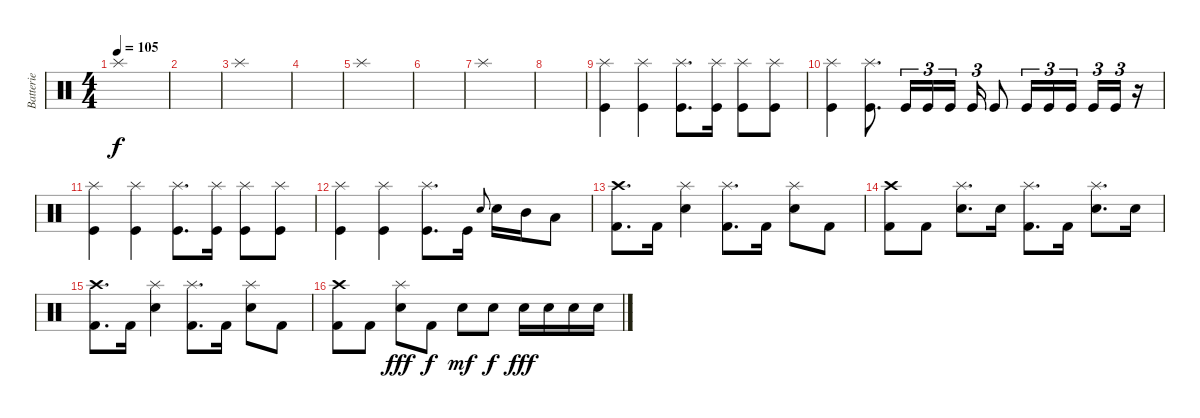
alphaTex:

\track ("Batterie" "Batterie") {instrument percussion}
\staff {score}
\articulation defaults
\ts (4 4)
\tempo 105
\clef neutral
\ks c "Splash (hit)".1{dy f}
|
|
"Splash (hit)".1 |
|
"Splash (hit)".1 |
|
"Splash (hit)".1 |
|
("Splash (hit)" "Kick (hit)").4 ("Splash (hit)" "Kick (hit)").4 ("Splash (hit)" "Kick (hit)").8{d} ("Splash (hit)" "Kick (hit)").16 ("Splash (hit)" "Kick (hit)").8 ("Splash (hit)" "Kick (hit)").8 |
("Splash (hit)" "Kick (hit)").4 ("Splash (hit)" "Kick (hit)").8{d} "Kick (hit)".16{tu (3 2)} "Kick (hit)".16{tu (3 2)} "Kick (hit)".16{tu (3 2) beam splitsecondary} "Kick (hit)".16{tu (3 2)} "Kick (hit)".8 "Kick (hit)".16{tu (3 2)} "Kick (hit)".16{tu (3 2)} "Kick (hit)".16{tu (3 2) beam splitsecondary} "Kick (hit)".16{tu (3 2)} "Kick (hit)".16{tu (3 2)} r.16 |
("Splash (hit)" "Kick (hit)").4 ("Splash (hit)" "Kick (hit)").4 ("Splash (hit)" "Kick (hit)").8{d} ("Splash (hit)" "Kick (hit)").16 ("Splash (hit)" "Kick (hit)").8 ("Splash (hit)" "Kick (hit)").8 |
("Splash (hit)" "Kick (hit)").4 ("Splash (hit)" "Kick (hit)").4 ("Splash (hit)" "Kick (hit)").8{d} "Kick (hit)".16 "Electric Snare (hit)".8{gr onbeat} "Electric Snare (hit)".16 "Mid Tom (hit)".16 "Low Tom (hit)".8 |
("Crash high (hit)" "Kick (hit) 2").8{d} "Kick (hit) 2".16 ("Splash (hit)" "Electric Snare (hit)").4 ("Splash (hit)" "Kick (hit) 2").8{d} "Kick (hit) 2".16 ("Splash (hit)" "Electric Snare (hit)").8 "Kick (hit) 2".8 |
("Crash high (hit)" "Kick (hit) 2").8 "Kick (hit) 2".8 ("Splash (hit)" "Electric Snare (hit)").8{d} "Electric Snare (hit)".16 ("Splash (hit)" "Kick (hit) 2").8{d} "Kick (hit) 2".16 ("Splash (hit)" "Electric Snare (hit)").8{d} "Electric Snare (hit)".16 |
("Crash high (hit)" "Kick (hit) 2").8{d} "Kick (hit) 2".16 ("Splash (hit)" "Electric Snare (hit)").4 ("Splash (hit)" "Kick (hit) 2").8{d} "Kick (hit) 2".16 ("Splash (hit)" "Electric Snare (hit)").8 "Kick (hit) 2".8 |
("Crash high (hit)" "Kick (hit) 2").8 "Kick (hit) 2".8 ("Splash (hit)" "Electric Snare (hit)").8{dy fff} "Kick (hit) 2".8{dy f} "Electric Snare (hit)".8{dy mf} "Electric Snare (hit)".8{dy f} "Electric Snare (hit)".16{dy fff} "Electric Snare (hit)".16 "Electric Snare (hit)".16 "Electric Snare (hit)".16
